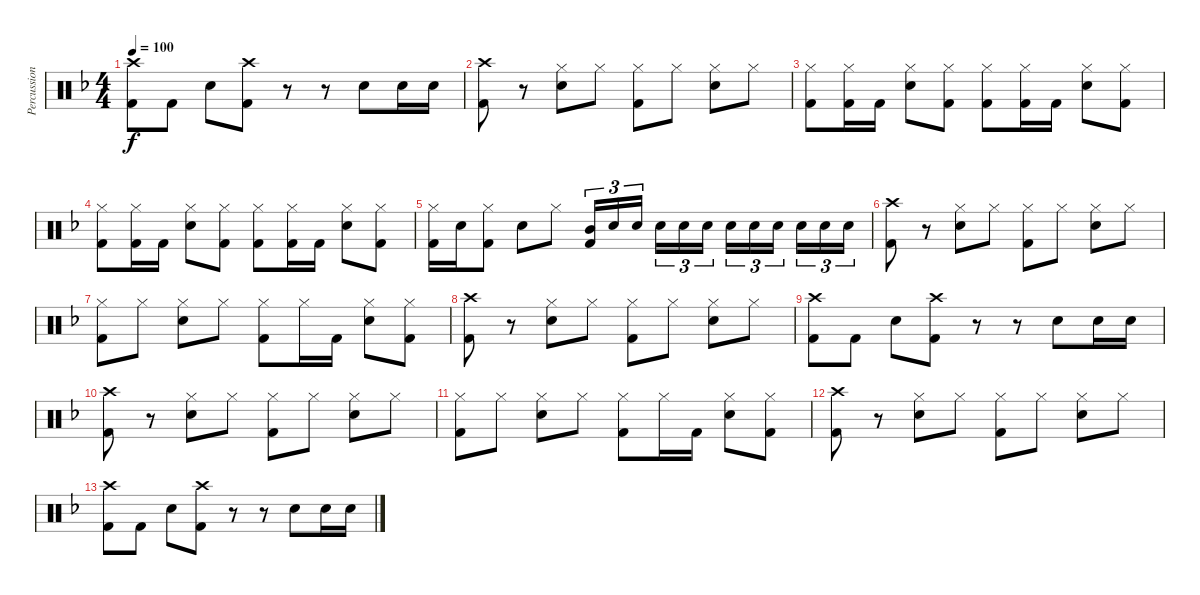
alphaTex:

\track ("Percussion" "Percussion") {instrument percussion}
\staff {score}
\articulation defaults
\ts (4 4)
\tempo 100
\clef neutral
\ks dminor
("Crash high (hit)" "Kick (hit) 2").8{dy f} "Kick (hit) 2".8 "Snare (hit) 2".8 ("Crash high (hit)" "Kick (hit) 2").8 r.8 r.8 "Snare (hit) 2".8 "Snare (hit) 2".16 "Snare (hit) 2".16 |
("Crash high (hit)" "Kick (hit) 2").8 r.8 ("Hi-Hat (closed)" "Snare (hit) 2").8 "Hi-Hat (closed)".8 ("Hi-Hat (closed)" "Kick (hit) 2").8 "Hi-Hat (closed)".8 ("Hi-Hat (closed)" "Snare (hit) 2").8 "Hi-Hat (closed)".8 |
("Hi-Hat (closed)" "Kick (hit) 2").8 ("Hi-Hat (closed)" "Kick (hit) 2").16 "Kick (hit) 2".16 ("Hi-Hat (closed)" "Snare (hit) 2").8 ("Hi-Hat (closed)" "Kick (hit) 2").8 ("Hi-Hat (closed)" "Kick (hit) 2").8 ("Hi-Hat (closed)" "Kick (hit) 2").16 "Kick (hit) 2".16 ("Hi-Hat (closed)" "Snare (hit) 2").8 ("Hi-Hat (closed)" "Kick (hit) 2").8 |
("Hi-Hat (closed)" "Kick (hit) 2").8 ("Hi-Hat (closed)" "Kick (hit) 2").16 "Kick (hit) 2".16 ("Hi-Hat (closed)" "Snare (hit) 2").8 ("Hi-Hat (closed)" "Kick (hit) 2").8 ("Hi-Hat (closed)" "Kick (hit) 2").8 ("Hi-Hat (closed)" "Kick (hit) 2").16 "Kick (hit) 2".16 ("Hi-Hat (closed)" "Snare (hit) 2").8 ("Hi-Hat (closed)" "Kick (hit) 2").8 |
("Hi-Hat (closed)" "Kick (hit) 2").16 "Snare (hit) 2".16 ("Hi-Hat (closed)" "Kick (hit) 2").8 "Snare (hit) 2".8 "Hi-Hat (closed)".8 ("Mid Tom (hit)" "Kick (hit) 2").16{tu (3 2)} "Snare (hit) 2".16{tu (3 2)} "Snare (hit) 2".16{tu (3 2)} "Snare (hit) 2".16{tu (3 2)} "Snare (hit) 2".16{tu (3 2)} "Snare (hit) 2".16{tu (3 2)} "Snare (hit) 2".16{tu (3 2)} "Snare (hit) 2".16{tu (3 2)} "Snare (hit) 2".16{tu (3 2)} "Snare (hit) 2".16{tu (3 2)} "Snare (hit) 2".16{tu (3 2)} "Snare (hit) 2".16{tu (3 2)} |
("Crash high (hit)" "Kick (hit) 2").8 r.8 ("Hi-Hat (closed)" "Snare (hit) 2").8 "Hi-Hat (closed)".8 ("Hi-Hat (closed)" "Kick (hit) 2").8 "Hi-Hat (closed)".8 ("Hi-Hat (closed)" "Snare (hit) 2").8 "Hi-Hat (closed)".8 |
("Hi-Hat (closed)" "Kick (hit) 2").8 "Hi-Hat (closed)".8 ("Hi-Hat (closed)" "Snare (hit) 2").8 "Hi-Hat (closed)".8 ("Hi-Hat (closed)" "Kick (hit) 2").8 "Hi-Hat (closed)".16 "Kick (hit) 2".16 ("Hi-Hat (closed)" "Snare (hit) 2").8 ("Hi-Hat (closed)" "Kick (hit) 2").8 |
("Crash high (hit)" "Kick (hit) 2").8 r.8 ("Hi-Hat (closed)" "Snare (hit) 2").8 "Hi-Hat (closed)".8 ("Hi-Hat (closed)" "Kick (hit) 2").8 "Hi-Hat (closed)".8 ("Hi-Hat (closed)" "Snare (hit) 2").8 "Hi-Hat (closed)".8 |
("Crash high (hit)" "Kick (hit) 2").8 "Kick (hit) 2".8 "Snare (hit) 2".8 ("Crash high (hit)" "Kick (hit) 2").8 r.8 r.8 "Snare (hit) 2".8 "Snare (hit) 2".16 "Snare (hit) 2".16 |
("Crash high (hit)" "Kick (hit) 2").8 r.8 ("Hi-Hat (closed)" "Snare (hit) 2").8 "Hi-Hat (closed)".8 ("Hi-Hat (closed)" "Kick (hit) 2").8 "Hi-Hat (closed)".8 ("Hi-Hat (closed)" "Snare (hit) 2").8 "Hi-Hat (closed)".8 |
("Hi-Hat (closed)" "Kick (hit) 2").8 "Hi-Hat (closed)".8 ("Hi-Hat (closed)" "Snare (hit) 2").8 "Hi-Hat (closed)".8 ("Hi-Hat (closed)" "Kick (hit) 2").8 "Hi-Hat (closed)".16 "Kick (hit) 2".16 ("Hi-Hat (closed)" "Snare (hit) 2").8 ("Hi-Hat (closed)" "Kick (hit) 2").8 |
("Crash high (hit)" "Kick (hit) 2").8 r.8 ("Hi-Hat (closed)" "Snare (hit) 2").8 "Hi-Hat (closed)".8 ("Hi-Hat (closed)" "Kick (hit) 2").8 "Hi-Hat (closed)".8 ("Hi-Hat (closed)" "Snare (hit) 2").8 "Hi-Hat (closed)".8 |
("Crash high (hit)" "Kick (hit) 2").8 "Kick (hit) 2".8 "Snare (hit) 2".8 ("Crash high (hit)" "Kick (hit) 2").8 r.8 r.8 "Snare (hit) 2".8 "Snare (hit) 2".16 "Snare (hit) 2".16
